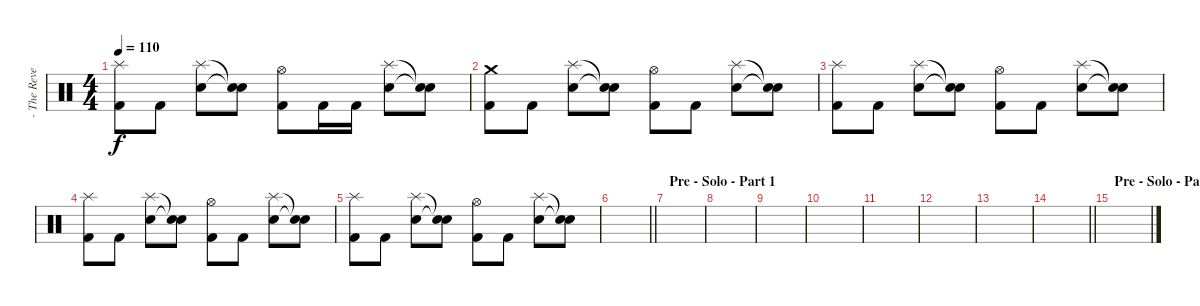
\track ("- The Reverend - Drums" "- The Reve") {instrument percussion}
\staff {score}
\articulation defaults
\ts (4 4)
\tempo 110
\clef neutral
\ks c
("Splash (hit)" "Kick (hit) 2").8{dy f} "Kick (hit) 2".8 ("Splash (hit)" "Snare (hit) 2").8 ("Snare (hit)"{t} "Snare (hit)"{t}).8 ("Hi-Hat (open)" "Kick (hit) 2").8 "Kick (hit) 2".16 "Kick (hit) 2".16 ("Splash (hit)" "Snare (hit) 2").8 ("Snare (hit)"{t} "Snare (hit)"{t}).8 |
("Crash medium (hit)" "Kick (hit) 2").8 "Kick (hit) 2".8 ("Splash (hit)" "Snare (hit) 2").8 ("Snare (hit)"{t} "Snare (hit)"{t}).8 ("Hi-Hat (open)" "Kick (hit) 2").8 "Kick (hit) 2".8 ("Splash (hit)" "Snare (hit) 2").8 ("Snare (hit)"{t} "Snare (hit)"{t}).8 |
("Splash (hit)" "Kick (hit) 2").8 "Kick (hit) 2".8 ("Splash (hit)" "Snare (hit) 2").8 ("Snare (hit)"{t} "Snare (hit)"{t}).8 ("Hi-Hat (open)" "Kick (hit) 2").8 "Kick (hit) 2".8 ("Splash (hit)" "Snare (hit) 2").8 ("Snare (hit)"{t} "Snare (hit)"{t}).8 |
("Splash (hit)" "Kick (hit) 2").8 "Kick (hit) 2".8 ("Splash (hit)" "Snare (hit) 2").8 ("Snare (hit)"{t} "Snare (hit)"{t}).8 ("Hi-Hat (open)" "Kick (hit) 2").8 "Kick (hit) 2".8 ("Splash (hit)" "Snare (hit) 2").8 ("Snare (hit)"{t} "Snare (hit)"{t}).8 |
("Splash (hit)" "Kick (hit) 2").8 "Kick (hit) 2".8 ("Splash (hit)" "Snare (hit) 2").8 ("Snare (hit)"{t} "Snare (hit)"{t}).8 ("Hi-Hat (open)" "Kick (hit) 2").8 "Kick (hit) 2".8 ("Splash (hit)" "Snare (hit) 2").8 ("Snare (hit)"{t} "Snare (hit)"{t}).8 |
\barLineRight lightlight
|
\section ("" "Pre - Solo - Part 1")
|
|
|
|
|
|
|
\barLineRight lightlight
|
\section ("" "Pre - Solo - Part 2")
